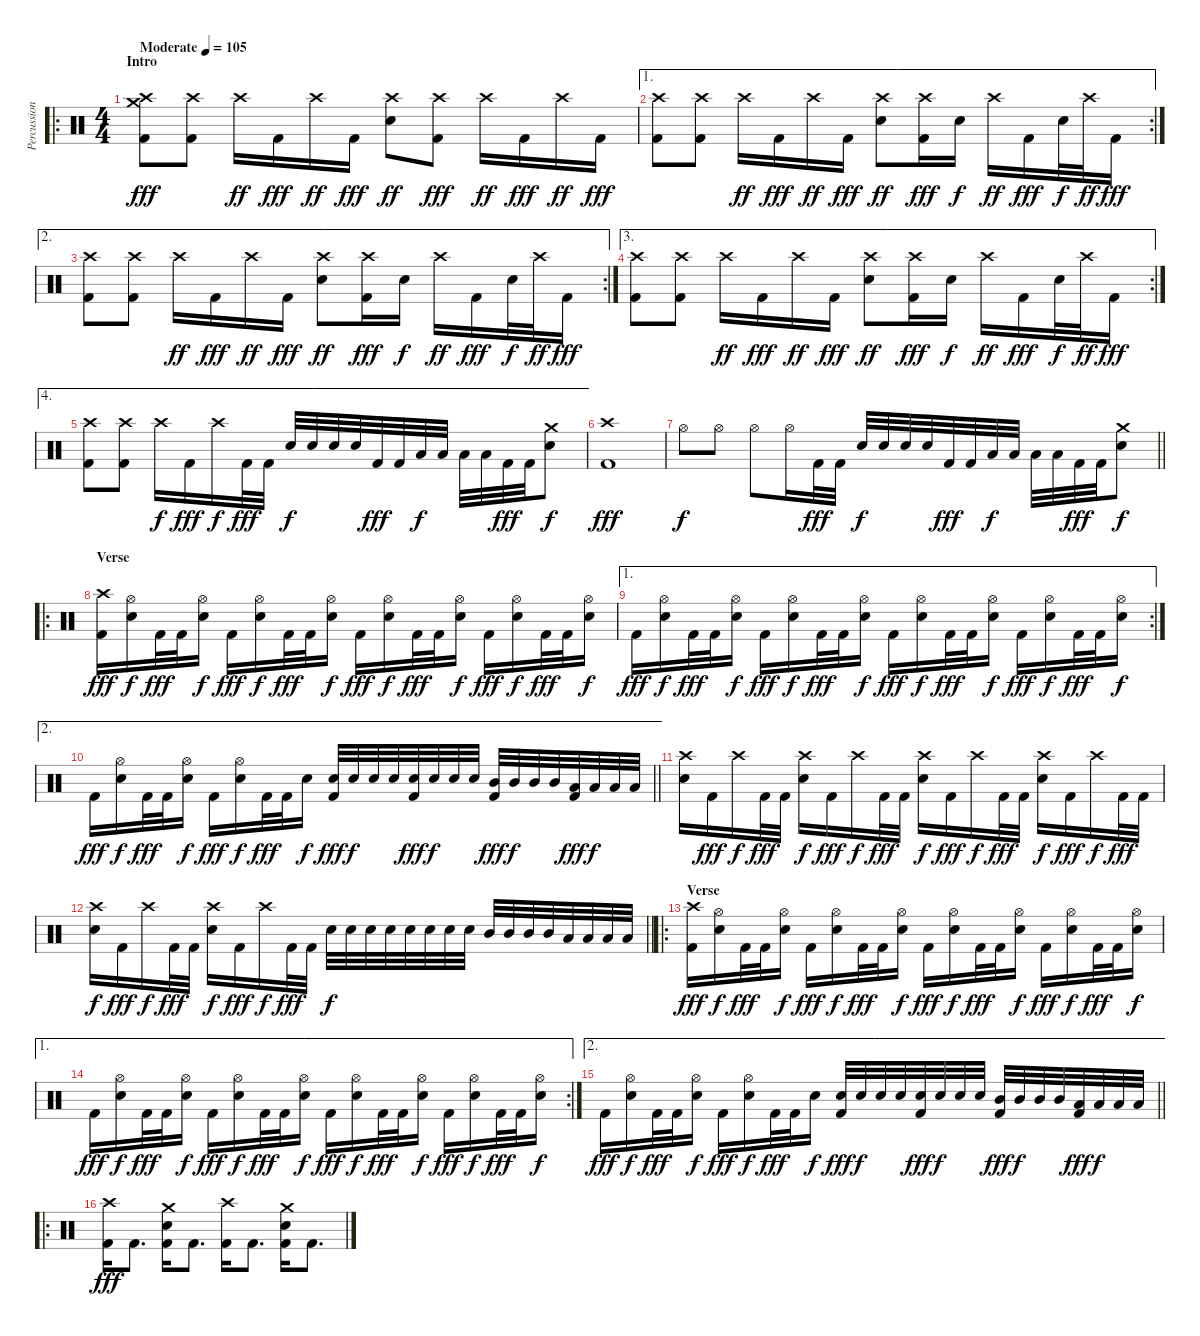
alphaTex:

\track ("Percussion" "Percussion") {instrument percussion}
\staff {score}
\articulation defaults
\ro
\ts (4 4)
\section ("" "Intro")
\tempo (105 "Moderate")
\clef neutral
\ks c
("Crash high (hit)" "Crash medium (hit)" "Kick (hit) 2").8{dy fff} ("Crash high (hit)" "Kick (hit) 2").8 "Crash high (hit)".16{dy ff} "Kick (hit) 2".16{dy fff} "Crash high (hit)".16{dy ff} "Kick (hit) 2".16{dy fff} ("Crash high (hit)" "Electric Snare (hit)").8{dy ff} ("Crash high (hit)" "Kick (hit) 2").8{dy fff} "Crash high (hit)".16{dy ff} "Kick (hit) 2".16{dy fff} "Crash high (hit)".16{dy ff} "Kick (hit) 2".16{dy fff} |
\ae 1
\rc 2
("Crash high (hit)" "Kick (hit) 2").8 ("Crash high (hit)" "Kick (hit) 2").8 "Crash high (hit)".16{dy ff} "Kick (hit) 2".16{dy fff} "Crash high (hit)".16{dy ff} "Kick (hit) 2".16{dy fff} ("Crash high (hit)" "Electric Snare (hit)").8{dy ff} ("Crash high (hit)" "Kick (hit) 2").16{dy fff} "Electric Snare (hit)".16{dy f} "Crash high (hit)".16{dy ff} "Kick (hit) 2".16{dy fff} "Electric Snare (hit)".32{dy f} "Crash high (hit)".32{dy ff} "Kick (hit) 2".16{dy fff} |
\ae 2
\rc 2
("Crash high (hit)" "Kick (hit) 2").8 ("Crash high (hit)" "Kick (hit) 2").8 "Crash high (hit)".16{dy ff} "Kick (hit) 2".16{dy fff} "Crash high (hit)".16{dy ff} "Kick (hit) 2".16{dy fff} ("Crash high (hit)" "Electric Snare (hit)").8{dy ff} ("Crash high (hit)" "Kick (hit) 2").16{dy fff} "Electric Snare (hit)".16{dy f} "Crash high (hit)".16{dy ff} "Kick (hit) 2".16{dy fff} "Electric Snare (hit)".32{dy f} "Crash high (hit)".32{dy ff} "Kick (hit) 2".16{dy fff} |
\ae 3
\rc 2
("Crash high (hit)" "Kick (hit) 2").8 ("Crash high (hit)" "Kick (hit) 2").8 "Crash high (hit)".16{dy ff} "Kick (hit) 2".16{dy fff} "Crash high (hit)".16{dy ff} "Kick (hit) 2".16{dy fff} ("Crash high (hit)" "Electric Snare (hit)").8{dy ff} ("Crash high (hit)" "Kick (hit) 2").16{dy fff} "Electric Snare (hit)".16{dy f} "Crash high (hit)".16{dy ff} "Kick (hit) 2".16{dy fff} "Electric Snare (hit)".32{dy f} "Crash high (hit)".32{dy ff} "Kick (hit) 2".16{dy fff} |
\ae 4
("Crash high (hit)" "Kick (hit) 2").8 ("Crash high (hit)" "Kick (hit) 2").8 "Crash high (hit)".16{dy f} "Kick (hit) 2".16{dy fff} "Crash high (hit)".16{dy f} "Kick (hit) 2".32{dy fff} "Kick (hit) 2".32 "Electric Snare (hit)".32{dy f} "Electric Snare (hit)".32 "Electric Snare (hit)".32 "Electric Snare (hit)".32 "Kick (hit) 2".32{dy fff} "Kick (hit) 2".32 "Low Tom (hit)".32{dy f} "Low Tom (hit)".32 "Low Tom (hit)".32 "Low Tom (hit)".32 "Kick (hit) 2".32{dy fff} "Kick (hit) 2".32 ("Crash medium (hit)" "Electric Snare (hit)").8{dy f} |
("Crash high (hit)" "Kick (hit) 2").1{dy fff} |
\barLineRight lightlight "Hi-Hat (open)".8{dy f} "Hi-Hat (open)".8 "Hi-Hat (open)".8 "Hi-Hat (open)".16 "Kick (hit) 2".32{dy fff} "Kick (hit) 2".32 "Electric Snare (hit)".32{dy f} "Electric Snare (hit)".32 "Electric Snare (hit)".32 "Electric Snare (hit)".32 "Kick (hit) 2".32{dy fff} "Kick (hit) 2".32 "Low Tom (hit)".32{dy f} "Low Tom (hit)".32 "Low Tom (hit)".32 "Low Tom (hit)".32 "Kick (hit) 2".32{dy fff} "Kick (hit) 2".32
("Crash medium (hit)" "Electric Snare (hit)").8{dy f} |
\ro
\section ("" "Verse")
("Crash high (hit)" "Kick (hit) 2").16{dy fff} ("Hi-Hat (open)" "Electric Snare (hit)").16{dy f} "Kick (hit) 2".32{dy fff} "Kick (hit) 2".32 ("Hi-Hat (open)" "Electric Snare (hit)").16{dy f} "Kick (hit) 2".16{dy fff} ("Hi-Hat (open)" "Electric Snare (hit)").16{dy f} "Kick (hit) 2".32{dy fff} "Kick (hit) 2".32 ("Hi-Hat (open)" "Electric Snare (hit)").16{dy f} "Kick (hit) 2".16{dy fff} ("Hi-Hat (open)" "Electric Snare (hit)").16{dy f} "Kick (hit) 2".32{dy fff} "Kick (hit) 2".32 ("Hi-Hat (open)" "Electric Snare (hit)").16{dy f} "Kick (hit) 2".16{dy fff} ("Hi-Hat (open)" "Electric Snare (hit)").16{dy f} "Kick (hit) 2".32{dy fff} "Kick (hit) 2".32 ("Hi-Hat (open)" "Electric Snare (hit)").16{dy f} |
\ae 1
\rc 2 "Kick (hit) 2".16{dy fff}
("Hi-Hat (open)" "Electric Snare (hit)").16{dy f} "Kick (hit) 2".32{dy fff} "Kick (hit) 2".32 ("Hi-Hat (open)" "Electric Snare (hit)").16{dy f} "Kick (hit) 2".16{dy fff} ("Hi-Hat (open)" "Electric Snare (hit)").16{dy f} "Kick (hit) 2".32{dy fff} "Kick (hit) 2".32 ("Hi-Hat (open)" "Electric Snare (hit)").16{dy f} "Kick (hit) 2".16{dy fff} ("Hi-Hat (open)" "Electric Snare (hit)").16{dy f} "Kick (hit) 2".32{dy fff} "Kick (hit) 2".32 ("Hi-Hat (open)" "Electric Snare (hit)").16{dy f} "Kick (hit) 2".16{dy fff} ("Hi-Hat (open)" "Electric Snare (hit)").16{dy f} "Kick (hit) 2".32{dy fff} "Kick (hit) 2".32 ("Hi-Hat (open)" "Electric Snare (hit)").16{dy f} |
\ae 2
\barLineRight lightlight "Kick (hit) 2".16{dy fff}
("Hi-Hat (open)" "Electric Snare (hit)").16{dy f} "Kick (hit) 2".32{dy fff} "Kick (hit) 2".32 ("Hi-Hat (open)" "Electric Snare (hit)").16{dy f} "Kick (hit) 2".16{dy fff} ("Hi-Hat (open)" "Electric Snare (hit)").16{dy f} "Kick (hit) 2".32{dy fff} "Kick (hit) 2".32 "Electric Snare (hit)".16{dy f} ("Electric Snare (hit)" "Kick (hit) 2").32{dy fff} "Electric Snare (hit)".32{dy f} "Electric Snare (hit)".32 "Electric Snare (hit)".32 ("Electric Snare (hit)" "Kick (hit) 2").32{dy fff} "Electric Snare (hit)".32{dy f} "Electric Snare (hit)".32 "Electric Snare (hit)".32 ("Mid Tom (hit)" "Kick (hit) 2").32{dy fff} "Mid Tom (hit)".32{dy f} "Mid Tom (hit)".32 "Mid Tom (hit)".32 ("Low Tom (hit)" "Kick (hit) 2").32{dy fff} "Low Tom (hit)".32{dy f} "Low Tom (hit)".32 "Low Tom (hit)".32 |
\section ("" "")
("Crash high (hit)" "Electric Snare (hit)").16 "Kick (hit) 2".16{dy fff} "Crash high (hit)".16{dy f} "Kick (hit) 2".32{dy fff} "Kick (hit) 2".32 ("Crash high (hit)" "Electric Snare (hit)").16{dy f} "Kick (hit) 2".16{dy fff} "Crash high (hit)".16{dy f} "Kick (hit) 2".32{dy fff} "Kick (hit) 2".32 ("Crash high (hit)" "Electric Snare (hit)").16{dy f} "Kick (hit) 2".16{dy fff} "Crash high (hit)".16{dy f} "Kick (hit) 2".32{dy fff} "Kick (hit) 2".32 ("Crash high (hit)" "Electric Snare (hit)").16{dy f} "Kick (hit) 2".16{dy fff} "Crash high (hit)".16{dy f} "Kick (hit) 2".32{dy fff} "Kick (hit) 2".32 |
\barLineRight lightlight
("Crash high (hit)" "Electric Snare (hit)").16{dy f} "Kick (hit) 2".16{dy fff} "Crash high (hit)".16{dy f} "Kick (hit) 2".32{dy fff} "Kick (hit) 2".32 ("Crash high (hit)" "Electric Snare (hit)").16{dy f} "Kick (hit) 2".16{dy fff} "Crash high (hit)".16{dy f} "Kick (hit) 2".32{dy fff} "Kick (hit) 2".32 "Electric Snare (hit)".32{dy f} "Electric Snare (hit)".32 "Electric Snare (hit)".32 "Electric Snare (hit)".32 "Electric Snare (hit)".32 "Electric Snare (hit)".32 "Electric Snare (hit)".32 "Electric Snare (hit)".32 "Mid Tom (hit)".32 "Mid Tom (hit)".32 "Mid Tom (hit)".32 "Mid Tom (hit)".32 "Low Tom (hit)".32 "Low Tom (hit)".32 "Low Tom (hit)".32 "Low Tom (hit)".32 |
\ro
\section ("" "Verse")
("Crash high (hit)" "Kick (hit) 2").16{dy fff} ("Hi-Hat (open)" "Electric Snare (hit)").16{dy f} "Kick (hit) 2".32{dy fff} "Kick (hit) 2".32 ("Hi-Hat (open)" "Electric Snare (hit)").16{dy f} "Kick (hit) 2".16{dy fff} ("Hi-Hat (open)" "Electric Snare (hit)").16{dy f} "Kick (hit) 2".32{dy fff} "Kick (hit) 2".32 ("Hi-Hat (open)" "Electric Snare (hit)").16{dy f} "Kick (hit) 2".16{dy fff} ("Hi-Hat (open)" "Electric Snare (hit)").16{dy f} "Kick (hit) 2".32{dy fff} "Kick (hit) 2".32 ("Hi-Hat (open)" "Electric Snare (hit)").16{dy f} "Kick (hit) 2".16{dy fff} ("Hi-Hat (open)" "Electric Snare (hit)").16{dy f} "Kick (hit) 2".32{dy fff} "Kick (hit) 2".32 ("Hi-Hat (open)" "Electric Snare (hit)").16{dy f} |
\ae 1
\rc 2 "Kick (hit) 2".16{dy fff}
("Hi-Hat (open)" "Electric Snare (hit)").16{dy f} "Kick (hit) 2".32{dy fff} "Kick (hit) 2".32 ("Hi-Hat (open)" "Electric Snare (hit)").16{dy f} "Kick (hit) 2".16{dy fff} ("Hi-Hat (open)" "Electric Snare (hit)").16{dy f} "Kick (hit) 2".32{dy fff} "Kick (hit) 2".32 ("Hi-Hat (open)" "Electric Snare (hit)").16{dy f} "Kick (hit) 2".16{dy fff} ("Hi-Hat (open)" "Electric Snare (hit)").16{dy f} "Kick (hit) 2".32{dy fff} "Kick (hit) 2".32 ("Hi-Hat (open)" "Electric Snare (hit)").16{dy f} "Kick (hit) 2".16{dy fff} ("Hi-Hat (open)" "Electric Snare (hit)").16{dy f} "Kick (hit) 2".32{dy fff} "Kick (hit) 2".32 ("Hi-Hat (open)" "Electric Snare (hit)").16{dy f} |
\ae 2
\barLineRight lightlight "Kick (hit) 2".16{dy fff}
("Hi-Hat (open)" "Electric Snare (hit)").16{dy f} "Kick (hit) 2".32{dy fff} "Kick (hit) 2".32 ("Hi-Hat (open)" "Electric Snare (hit)").16{dy f} "Kick (hit) 2".16{dy fff} ("Hi-Hat (open)" "Electric Snare (hit)").16{dy f} "Kick (hit) 2".32{dy fff} "Kick (hit) 2".32 "Electric Snare (hit)".16{dy f} ("Electric Snare (hit)" "Kick (hit) 2").32{dy fff} "Electric Snare (hit)".32{dy f} "Electric Snare (hit)".32 "Electric Snare (hit)".32 ("Electric Snare (hit)" "Kick (hit) 2").32{dy fff} "Electric Snare (hit)".32{dy f} "Electric Snare (hit)".32 "Electric Snare (hit)".32 ("Mid Tom (hit)" "Kick (hit) 2").32{dy fff} "Mid Tom (hit)".32{dy f} "Mid Tom (hit)".32 "Mid Tom (hit)".32 ("Low Tom (hit)" "Kick (hit) 2").32{dy fff} "Low Tom (hit)".32{dy f} "Low Tom (hit)".32 "Low Tom (hit)".32 |
\ro
("Crash high (hit)" "Kick (hit) 2").16{dy fff} "Kick (hit) 2".8{d} ("Crash medium (hit)" "Electric Snare (hit)" "Kick (hit) 2").16 "Kick (hit) 2".8{d} ("Crash high (hit)" "Kick (hit) 2").16 "Kick (hit) 2".8{d} ("Crash medium (hit)" "Electric Snare (hit)" "Kick (hit) 2").16 "Kick (hit) 2".8{d}
